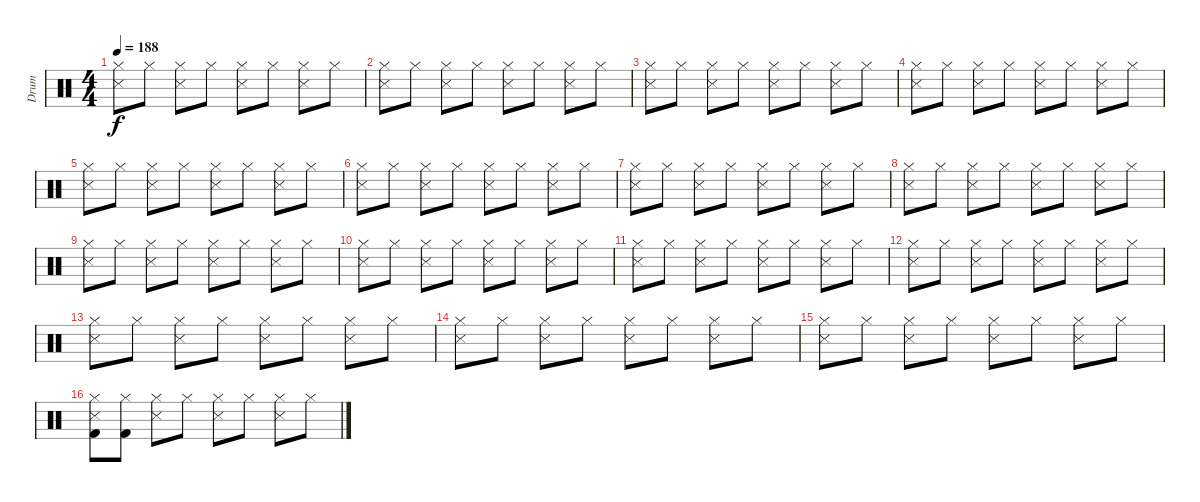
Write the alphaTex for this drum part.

\track ("Drum" "Drum") {instrument percussion}
\staff {score}
\articulation defaults
\ts (4 4)
\tempo 188
\clef neutral
\ks c
("Hi-Hat (closed)" "Snare (side stick) 3").8{dy f} "Hi-Hat (closed)".8 ("Hi-Hat (closed)" "Snare (side stick) 3").8 "Hi-Hat (closed)".8 ("Hi-Hat (closed)" "Snare (side stick) 3").8 "Hi-Hat (closed)".8 ("Hi-Hat (closed)" "Snare (side stick) 3").8 "Hi-Hat (closed)".8 |
("Hi-Hat (closed)" "Snare (side stick) 3").8 "Hi-Hat (closed)".8 ("Hi-Hat (closed)" "Snare (side stick) 3").8 "Hi-Hat (closed)".8 ("Hi-Hat (closed)" "Snare (side stick) 3").8 "Hi-Hat (closed)".8 ("Hi-Hat (closed)" "Snare (side stick) 3").8 "Hi-Hat (closed)".8 |
("Hi-Hat (closed)" "Snare (side stick) 3").8 "Hi-Hat (closed)".8 ("Hi-Hat (closed)" "Snare (side stick) 3").8 "Hi-Hat (closed)".8 ("Hi-Hat (closed)" "Snare (side stick) 3").8 "Hi-Hat (closed)".8 ("Hi-Hat (closed)" "Snare (side stick) 3").8 "Hi-Hat (closed)".8 |
("Hi-Hat (closed)" "Snare (side stick) 3").8 "Hi-Hat (closed)".8 ("Hi-Hat (closed)" "Snare (side stick) 3").8 "Hi-Hat (closed)".8 ("Hi-Hat (closed)" "Snare (side stick) 3").8 "Hi-Hat (closed)".8 ("Hi-Hat (closed)" "Snare (side stick) 3").8 "Hi-Hat (closed)".8 |
("Hi-Hat (closed)" "Snare (side stick) 3").8 "Hi-Hat (closed)".8 ("Hi-Hat (closed)" "Snare (side stick) 3").8 "Hi-Hat (closed)".8 ("Hi-Hat (closed)" "Snare (side stick) 3").8 "Hi-Hat (closed)".8 ("Hi-Hat (closed)" "Snare (side stick) 3").8 "Hi-Hat (closed)".8 |
("Hi-Hat (closed)" "Snare (side stick) 3").8 "Hi-Hat (closed)".8 ("Hi-Hat (closed)" "Snare (side stick) 3").8 "Hi-Hat (closed)".8 ("Hi-Hat (closed)" "Snare (side stick) 3").8 "Hi-Hat (closed)".8 ("Hi-Hat (closed)" "Snare (side stick) 3").8 "Hi-Hat (closed)".8 |
("Hi-Hat (closed)" "Snare (side stick) 3").8 "Hi-Hat (closed)".8 ("Hi-Hat (closed)" "Snare (side stick) 3").8 "Hi-Hat (closed)".8 ("Hi-Hat (closed)" "Snare (side stick) 3").8 "Hi-Hat (closed)".8 ("Hi-Hat (closed)" "Snare (side stick) 3").8 "Hi-Hat (closed)".8 |
("Hi-Hat (closed)" "Snare (side stick) 3").8 "Hi-Hat (closed)".8 ("Hi-Hat (closed)" "Snare (side stick) 3").8 "Hi-Hat (closed)".8 ("Hi-Hat (closed)" "Snare (side stick) 3").8 "Hi-Hat (closed)".8 ("Hi-Hat (closed)" "Snare (side stick) 3").8 "Hi-Hat (closed)".8 |
("Hi-Hat (closed)" "Snare (side stick) 3").8 "Hi-Hat (closed)".8 ("Hi-Hat (closed)" "Snare (side stick) 3").8 "Hi-Hat (closed)".8 ("Hi-Hat (closed)" "Snare (side stick) 3").8 "Hi-Hat (closed)".8 ("Hi-Hat (closed)" "Snare (side stick) 3").8 "Hi-Hat (closed)".8 |
("Hi-Hat (closed)" "Snare (side stick) 3").8 "Hi-Hat (closed)".8 ("Hi-Hat (closed)" "Snare (side stick) 3").8 "Hi-Hat (closed)".8 ("Hi-Hat (closed)" "Snare (side stick) 3").8 "Hi-Hat (closed)".8 ("Hi-Hat (closed)" "Snare (side stick) 3").8 "Hi-Hat (closed)".8 |
("Hi-Hat (closed)" "Snare (side stick) 3").8 "Hi-Hat (closed)".8 ("Hi-Hat (closed)" "Snare (side stick) 3").8 "Hi-Hat (closed)".8 ("Hi-Hat (closed)" "Snare (side stick) 3").8 "Hi-Hat (closed)".8 ("Hi-Hat (closed)" "Snare (side stick) 3").8 "Hi-Hat (closed)".8 |
("Hi-Hat (closed)" "Snare (side stick) 3").8 "Hi-Hat (closed)".8 ("Hi-Hat (closed)" "Snare (side stick) 3").8 "Hi-Hat (closed)".8 ("Hi-Hat (closed)" "Snare (side stick) 3").8 "Hi-Hat (closed)".8 ("Hi-Hat (closed)" "Snare (side stick) 3").8 "Hi-Hat (closed)".8 |
("Hi-Hat (closed)" "Snare (side stick) 3").8 "Hi-Hat (closed)".8 ("Hi-Hat (closed)" "Snare (side stick) 3").8 "Hi-Hat (closed)".8 ("Hi-Hat (closed)" "Snare (side stick) 3").8 "Hi-Hat (closed)".8 ("Hi-Hat (closed)" "Snare (side stick) 3").8 "Hi-Hat (closed)".8 |
("Hi-Hat (closed)" "Snare (side stick) 3").8 "Hi-Hat (closed)".8 ("Hi-Hat (closed)" "Snare (side stick) 3").8 "Hi-Hat (closed)".8 ("Hi-Hat (closed)" "Snare (side stick) 3").8 "Hi-Hat (closed)".8 ("Hi-Hat (closed)" "Snare (side stick) 3").8 "Hi-Hat (closed)".8 |
("Hi-Hat (closed)" "Snare (side stick) 3").8 "Hi-Hat (closed)".8 ("Hi-Hat (closed)" "Snare (side stick) 3").8 "Hi-Hat (closed)".8 ("Hi-Hat (closed)" "Snare (side stick) 3").8 "Hi-Hat (closed)".8 ("Hi-Hat (closed)" "Snare (side stick) 3").8 "Hi-Hat (closed)".8 |
("Hi-Hat (closed)" "Snare (side stick) 3" "Kick (hit) 2").8 ("Hi-Hat (closed)" "Kick (hit) 2").8 ("Hi-Hat (closed)" "Snare (side stick) 3").8 "Hi-Hat (closed)".8 ("Hi-Hat (closed)" "Snare (side stick) 3").8 "Hi-Hat (closed)".8 ("Hi-Hat (closed)" "Snare (side stick) 3").8 "Hi-Hat (closed)".8
